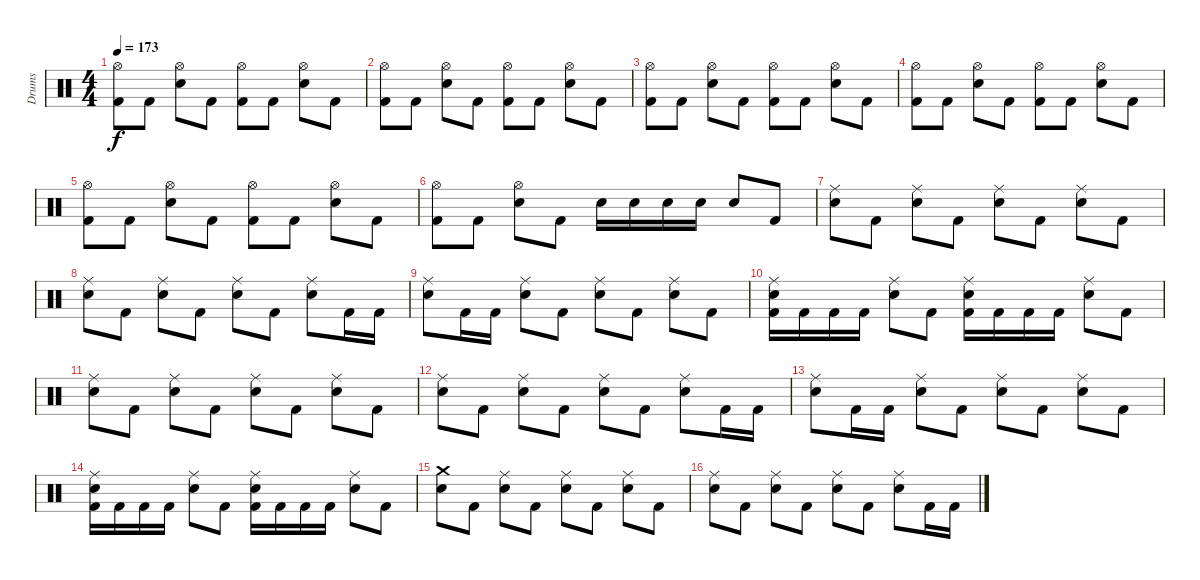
\track ("Drums" "Drums") {instrument percussion}
\staff {score}
\articulation defaults
\ts (4 4)
\tempo 173
\clef neutral
\ks c
("Hi-Hat (open)" "Kick (hit) 2").8{dy f} "Kick (hit) 2".8 ("Hi-Hat (open)" "Snare (hit) 2").8 "Kick (hit) 2".8 ("Hi-Hat (open)" "Kick (hit) 2").8 "Kick (hit) 2".8 ("Hi-Hat (open)" "Snare (hit) 2").8 "Kick (hit) 2".8 |
("Hi-Hat (open)" "Kick (hit) 2").8 "Kick (hit) 2".8 ("Hi-Hat (open)" "Snare (hit) 2").8 "Kick (hit) 2".8 ("Hi-Hat (open)" "Kick (hit) 2").8 "Kick (hit) 2".8 ("Hi-Hat (open)" "Snare (hit) 2").8 "Kick (hit) 2".8 |
("Hi-Hat (open)" "Kick (hit) 2").8 "Kick (hit) 2".8 ("Hi-Hat (open)" "Snare (hit) 2").8 "Kick (hit) 2".8 ("Hi-Hat (open)" "Kick (hit) 2").8 "Kick (hit) 2".8 ("Hi-Hat (open)" "Snare (hit) 2").8 "Kick (hit) 2".8 |
("Hi-Hat (open)" "Kick (hit) 2").8 "Kick (hit) 2".8 ("Hi-Hat (open)" "Snare (hit) 2").8 "Kick (hit) 2".8 ("Hi-Hat (open)" "Kick (hit) 2").8 "Kick (hit) 2".8 ("Hi-Hat (open)" "Snare (hit) 2").8 "Kick (hit) 2".8 |
("Hi-Hat (open)" "Kick (hit) 2").8 "Kick (hit) 2".8 ("Hi-Hat (open)" "Snare (hit) 2").8 "Kick (hit) 2".8 ("Hi-Hat (open)" "Kick (hit) 2").8 "Kick (hit) 2".8 ("Hi-Hat (open)" "Snare (hit) 2").8 "Kick (hit) 2".8 |
("Hi-Hat (open)" "Kick (hit) 2").8 "Kick (hit) 2".8 ("Hi-Hat (open)" "Snare (hit) 2").8 "Kick (hit) 2".8 "Snare (hit) 2".16 "Snare (hit) 2".16 "Snare (hit) 2".16 "Snare (hit) 2".16 "Snare (hit) 2".8 "Kick (hit) 2".8 |
("Ride (middle)" "Snare (hit) 2").8 "Kick (hit) 2".8 ("Ride (middle)" "Snare (hit) 2").8 "Kick (hit) 2".8 ("Ride (middle)" "Snare (hit) 2").8 "Kick (hit) 2".8 ("Ride (middle)" "Snare (hit) 2").8 "Kick (hit) 2".8 |
("Ride (middle)" "Snare (hit) 2").8 "Kick (hit) 2".8 ("Ride (middle)" "Snare (hit) 2").8 "Kick (hit) 2".8 ("Ride (middle)" "Snare (hit) 2").8 "Kick (hit) 2".8 ("Ride (middle)" "Snare (hit) 2").8 "Kick (hit) 2".16 "Kick (hit) 2".16 |
("Ride (middle)" "Snare (hit) 2").8 "Kick (hit) 2".16 "Kick (hit) 2".16 ("Ride (middle)" "Snare (hit) 2").8 "Kick (hit) 2".8 ("Ride (middle)" "Snare (hit) 2").8 "Kick (hit) 2".8 ("Ride (middle)" "Snare (hit) 2").8 "Kick (hit) 2".8 |
("Ride (middle)" "Snare (hit) 2" "Kick (hit) 2").16 "Kick (hit) 2".16 "Kick (hit) 2".16 "Kick (hit) 2".16 ("Ride (middle)" "Snare (hit) 2").8 "Kick (hit) 2".8 ("Ride (middle)" "Snare (hit) 2" "Kick (hit) 2").16 "Kick (hit) 2".16 "Kick (hit) 2".16 "Kick (hit) 2".16 ("Ride (middle)" "Snare (hit) 2").8 "Kick (hit) 2".8 |
("Ride (middle)" "Snare (hit) 2").8 "Kick (hit) 2".8 ("Ride (middle)" "Snare (hit) 2").8 "Kick (hit) 2".8 ("Ride (middle)" "Snare (hit) 2").8 "Kick (hit) 2".8 ("Ride (middle)" "Snare (hit) 2").8 "Kick (hit) 2".8 |
("Ride (middle)" "Snare (hit) 2").8 "Kick (hit) 2".8 ("Ride (middle)" "Snare (hit) 2").8 "Kick (hit) 2".8 ("Ride (middle)" "Snare (hit) 2").8 "Kick (hit) 2".8 ("Ride (middle)" "Snare (hit) 2").8 "Kick (hit) 2".16 "Kick (hit) 2".16 |
("Ride (middle)" "Snare (hit) 2").8 "Kick (hit) 2".16 "Kick (hit) 2".16 ("Ride (middle)" "Snare (hit) 2").8 "Kick (hit) 2".8 ("Ride (middle)" "Snare (hit) 2").8 "Kick (hit) 2".8 ("Ride (middle)" "Snare (hit) 2").8 "Kick (hit) 2".8 |
("Ride (middle)" "Snare (hit) 2" "Kick (hit) 2").16 "Kick (hit) 2".16 "Kick (hit) 2".16 "Kick (hit) 2".16 ("Ride (middle)" "Snare (hit) 2").8 "Kick (hit) 2".8 ("Ride (middle)" "Snare (hit) 2" "Kick (hit) 2").16 "Kick (hit) 2".16 "Kick (hit) 2".16 "Kick (hit) 2".16 ("Ride (middle)" "Snare (hit) 2").8 "Kick (hit) 2".8 |
("Crash medium (hit)" "Snare (hit) 2").8 "Kick (hit) 2".8 ("Ride (middle)" "Snare (hit) 2").8 "Kick (hit) 2".8 ("Ride (middle)" "Snare (hit) 2").8 "Kick (hit) 2".8 ("Ride (middle)" "Snare (hit) 2").8 "Kick (hit) 2".8 |
("Ride (middle)" "Snare (hit) 2").8 "Kick (hit) 2".8 ("Ride (middle)" "Snare (hit) 2").8 "Kick (hit) 2".8 ("Ride (middle)" "Snare (hit) 2").8 "Kick (hit) 2".8 ("Ride (middle)" "Snare (hit) 2").8 "Kick (hit) 2".16 "Kick (hit) 2".16
